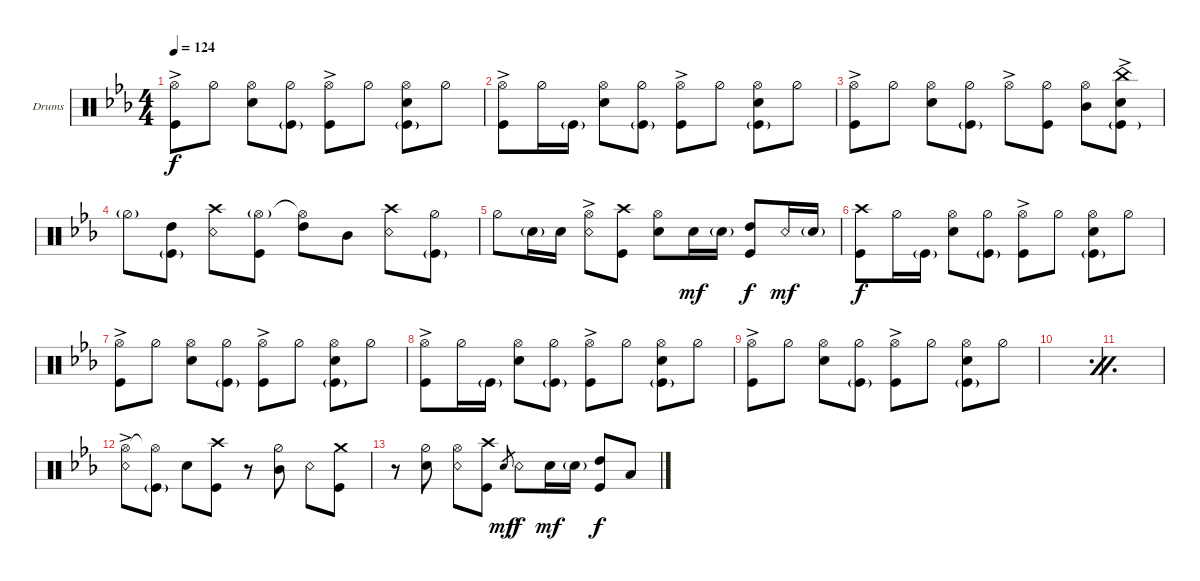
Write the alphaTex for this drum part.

\bracketExtendMode groupsimilarinstruments
\firstSystemTrackNameOrientation horizontal
\otherSystemsTrackNameOrientation horizontal
\track ("Drumkit" "Drums") {instrument percussion}
\staff {score}
\articulation defaults
\ts (4 4)
\tempo 124
\clef neutral
\ks cminor
("Kick (hit)" "Hi-Hat (open)"{ac}).8{dy f} "Hi-Hat (half)".8 ("Snare (hit) 2" "Hi-Hat (open)").8 ("Kick (hit)"{g} "Hi-Hat (half)").8 ("Kick (hit)" "Hi-Hat (open)"{ac}).8 "Hi-Hat (half)".8 ("Snare (hit) 2" "Kick (hit)"{g} "Hi-Hat (open)").8 "Hi-Hat (half)".8 |
("Kick (hit)" "Hi-Hat (open)"{ac}).8 "Hi-Hat (half)".16 "Kick (hit)"{g}.16 ("Snare (hit) 2" "Hi-Hat (open)").8 ("Hi-Hat (half)" "Kick (hit)"{g}).8 ("Kick (hit)" "Hi-Hat (open)"{ac}).8 "Hi-Hat (half)".8 ("Snare (hit) 2" "Kick (hit)"{g} "Hi-Hat (open)").8 "Hi-Hat (half)".8 |
("Kick (hit)" "Hi-Hat (open)"{ac}).8 "Hi-Hat (half)".8 ("Snare (hit) 2" "Hi-Hat (open)").8 ("Kick (hit)"{g} "Hi-Hat (half)").8 "Hi-Hat (open)"{ac}.8 ("Kick (hit)" "Hi-Hat (half)").8 ("Mid Tom (hit)" "Hi-Hat (open)").8 ("Snare (hit) 2" "China (hit)"{ac} "Kick (hit)"{g}).8 |
"Hi-Hat (half)"{g}.8 ("Kick (hit)"{g} "High Tom (hit)").8 ("Snare (rim shot)" "Crash high (hit)").8 ("Kick (hit)" "Hi-Hat (open)"{g}).8 ("High Tom (hit)" "Hi-Hat (open)"{t}).8 "Mid Tom (hit)".8 ("Snare (rim shot)" "Crash high (hit)").8 ("Kick (hit)"{g} "Hi-Hat (half)").8 |
"Hi-Hat (half)".8 "Snare (hit) 2"{g}.16 "Snare (hit) 2".16 ("Snare (rim shot)" "Hi-Hat (open)"{ac}).8 ("Crash high (hit)" "Kick (hit)").8 ("Snare (hit) 2" "Hi-Hat (open)").8 "Snare (hit) 2".16{dy mf} "Snare (hit) 2"{g}.16 ("Kick (hit)" "High Tom (hit)").8{dy f} "Snare (rim shot)".16{dy mf} "Snare (hit) 2"{g}.16 |
("Kick (hit)" "Crash high (hit)").8{dy f} "Hi-Hat (half)".16 "Kick (hit)"{g}.16 ("Snare (hit) 2" "Hi-Hat (open)").8 ("Hi-Hat (half)" "Kick (hit)"{g}).8 ("Kick (hit)" "Hi-Hat (open)"{ac}).8 "Hi-Hat (half)".8 ("Snare (hit) 2" "Kick (hit)"{g} "Hi-Hat (open)").8 "Hi-Hat (half)".8 |
("Kick (hit)" "Hi-Hat (open)"{ac}).8 "Hi-Hat (half)".8 ("Snare (hit) 2" "Hi-Hat (open)").8 ("Kick (hit)"{g} "Hi-Hat (half)").8 ("Kick (hit)" "Hi-Hat (open)"{ac}).8 "Hi-Hat (half)".8 ("Snare (hit) 2" "Kick (hit)"{g} "Hi-Hat (open)").8 "Hi-Hat (half)".8 |
("Kick (hit)" "Hi-Hat (open)"{ac}).8 "Hi-Hat (half)".16 "Kick (hit)"{g}.16 ("Snare (hit) 2" "Hi-Hat (open)").8 ("Hi-Hat (half)" "Kick (hit)"{g}).8 ("Kick (hit)" "Hi-Hat (open)"{ac}).8 "Hi-Hat (half)".8 ("Snare (hit) 2" "Kick (hit)"{g} "Hi-Hat (open)").8 "Hi-Hat (half)".8 |
("Kick (hit)" "Hi-Hat (open)"{ac}).8 "Hi-Hat (half)".8 ("Snare (hit) 2" "Hi-Hat (open)").8 ("Kick (hit)"{g} "Hi-Hat (half)").8 ("Kick (hit)" "Hi-Hat (open)"{ac}).8 "Hi-Hat (half)".8 ("Snare (hit) 2" "Kick (hit)"{g} "Hi-Hat (open)").8 "Hi-Hat (half)".8 |
\simile firstofdouble
|
\simile secondofdouble
|
\simile none
("Snare (rim shot)" "Hi-Hat (open)"{ac}).8 ("Kick (hit)"{g} "Hi-Hat (open)"{t}).8 "Snare (hit) 2".8 ("Kick (hit)" "Crash high (hit)").8 r.8 ("Mid Tom (hit)" "Hi-Hat (half)").8 "Snare (rim shot)".8 ("Kick (hit)" "Crash medium (hit)").8 |
r.8 ("Snare (hit) 2" "Hi-Hat (half)").8 ("Snare (rim shot)" "Hi-Hat (open)").8 ("Kick (hit)" "Crash high (hit)").8 "Snare (hit) 2".8{gr dy mf} "Snare (rim shot)".8{dy f} "Snare (hit) 2".16{dy mf} "Snare (hit) 2"{g}.16 ("Kick (hit)" "High Tom (hit)").8{dy f} "Low Tom (hit)".8
